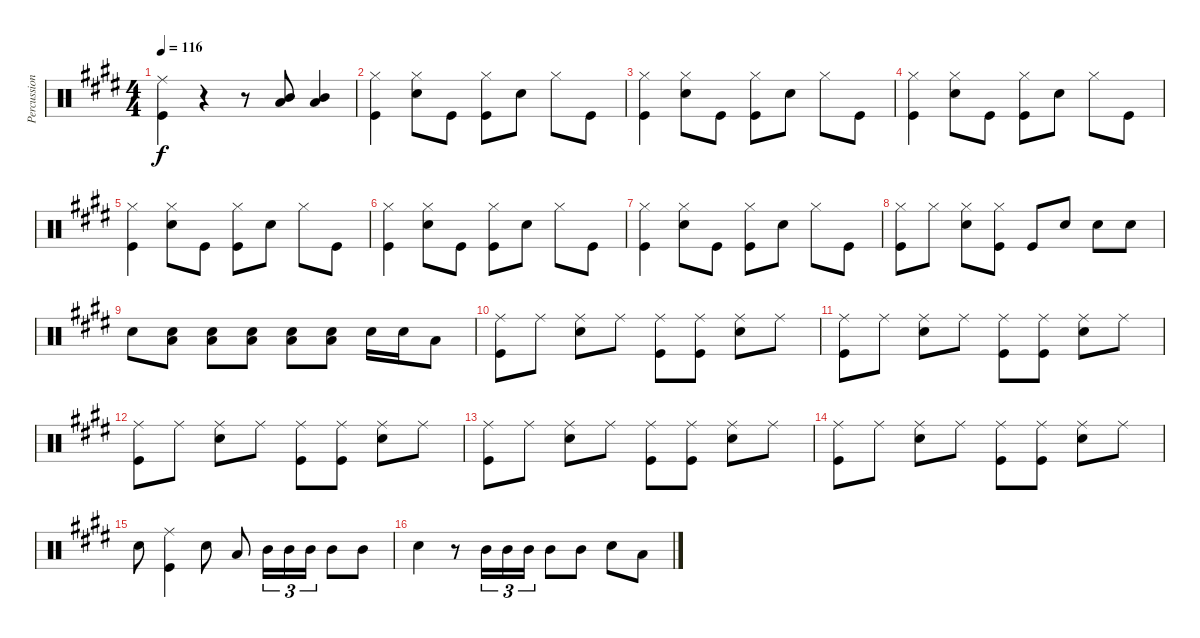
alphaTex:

\track ("Percussion" "Percussion") {instrument percussion}
\staff {score}
\articulation defaults
\ts (4 4)
\tempo 116
\clef neutral
\ks e
("Ride (middle)" "Kick (hit)").4{dy f} r.4 r.8 ("Mid Tom (hit)" "Low Tom (hit)").8 ("Mid Tom (hit)" "Low Tom (hit)").4 |
("Hi-Hat (closed)" "Kick (hit)").4 ("Hi-Hat (closed)" "Snare (hit) 2").8 "Kick (hit)".8 ("Hi-Hat (closed)" "Kick (hit)").8 "Snare (hit) 2".8 "Hi-Hat (closed)".8 "Kick (hit)".8 |
("Hi-Hat (closed)" "Kick (hit)").4 ("Hi-Hat (closed)" "Snare (hit) 2").8 "Kick (hit)".8 ("Hi-Hat (closed)" "Kick (hit)").8 "Snare (hit) 2".8 "Hi-Hat (closed)".8 "Kick (hit)".8 |
("Hi-Hat (closed)" "Kick (hit)").4 ("Hi-Hat (closed)" "Snare (hit) 2").8 "Kick (hit)".8 ("Hi-Hat (closed)" "Kick (hit)").8 "Snare (hit) 2".8 "Hi-Hat (closed)".8 "Kick (hit)".8 |
("Hi-Hat (closed)" "Kick (hit)").4 ("Hi-Hat (closed)" "Snare (hit) 2").8 "Kick (hit)".8 ("Hi-Hat (closed)" "Kick (hit)").8 "Snare (hit) 2".8 "Hi-Hat (closed)".8 "Kick (hit)".8 |
("Hi-Hat (closed)" "Kick (hit)").4 ("Hi-Hat (closed)" "Snare (hit) 2").8 "Kick (hit)".8 ("Hi-Hat (closed)" "Kick (hit)").8 "Snare (hit) 2".8 "Hi-Hat (closed)".8 "Kick (hit)".8 |
("Hi-Hat (closed)" "Kick (hit)").4 ("Hi-Hat (closed)" "Snare (hit) 2").8 "Kick (hit)".8 ("Hi-Hat (closed)" "Kick (hit)").8 "Snare (hit) 2".8 "Hi-Hat (closed)".8 "Kick (hit)".8 |
("Hi-Hat (closed)" "Kick (hit)").8 "Hi-Hat (closed)".8 ("Hi-Hat (closed)" "Snare (hit) 2").8 ("Hi-Hat (closed)" "Kick (hit)").8 "Kick (hit)".8 "Snare (hit) 2".8 "Snare (hit) 2".8 "Snare (hit) 2".8 |
"Snare (hit) 2".8 ("Low Tom (hit)" "Snare (hit) 2").8 ("Low Tom (hit)" "Snare (hit) 2").8 ("Low Tom (hit)" "Snare (hit) 2").8 ("Low Tom (hit)" "Snare (hit) 2").8 ("Low Tom (hit)" "Snare (hit) 2").8 "Snare (hit) 2".16 "Snare (hit) 2".16 "Low Tom (hit)".8 |
("Ride (middle)" "Kick (hit)").8 "Ride (middle)".8 ("Ride (middle)" "Snare (hit) 2").8 "Ride (middle)".8 ("Ride (middle)" "Kick (hit)").8 ("Ride (middle)" "Kick (hit)").8 ("Ride (middle)" "Snare (hit) 2").8 "Ride (middle)".8 |
("Ride (middle)" "Kick (hit)").8 "Ride (middle)".8 ("Ride (middle)" "Snare (hit) 2").8 "Ride (middle)".8 ("Ride (middle)" "Kick (hit)").8 ("Ride (middle)" "Kick (hit)").8 ("Ride (middle)" "Snare (hit) 2").8 "Ride (middle)".8 |
("Ride (middle)" "Kick (hit)").8 "Ride (middle)".8 ("Ride (middle)" "Snare (hit) 2").8 "Ride (middle)".8 ("Ride (middle)" "Kick (hit)").8 ("Ride (middle)" "Kick (hit)").8 ("Ride (middle)" "Snare (hit) 2").8 "Ride (middle)".8 |
("Ride (middle)" "Kick (hit)").8 "Ride (middle)".8 ("Ride (middle)" "Snare (hit) 2").8 "Ride (middle)".8 ("Ride (middle)" "Kick (hit)").8 ("Ride (middle)" "Kick (hit)").8 ("Ride (middle)" "Snare (hit) 2").8 "Ride (middle)".8 |
("Ride (middle)" "Kick (hit)").8 "Ride (middle)".8 ("Ride (middle)" "Snare (hit) 2").8 "Ride (middle)".8 ("Ride (middle)" "Kick (hit)").8 ("Ride (middle)" "Kick (hit)").8 ("Ride (middle)" "Snare (hit) 2").8 "Ride (middle)".8 |
"Snare (hit) 2".8 ("Ride (middle)" "Kick (hit)").4 "Snare (hit) 2".8 "Low Tom (hit)".8 "Mid Tom (hit)".16{tu (3 2)} "Mid Tom (hit)".16{tu (3 2)} "Mid Tom (hit)".16{tu (3 2)} "Mid Tom (hit)".8 "Mid Tom (hit)".8 |
"Snare (hit) 2".4 r.8 "Mid Tom (hit)".16{tu (3 2)} "Mid Tom (hit)".16{tu (3 2)} "Mid Tom (hit)".16{tu (3 2)} "Mid Tom (hit)".8 "Mid Tom (hit)".8 "Snare (hit) 2".8 "Low Tom (hit)".8
